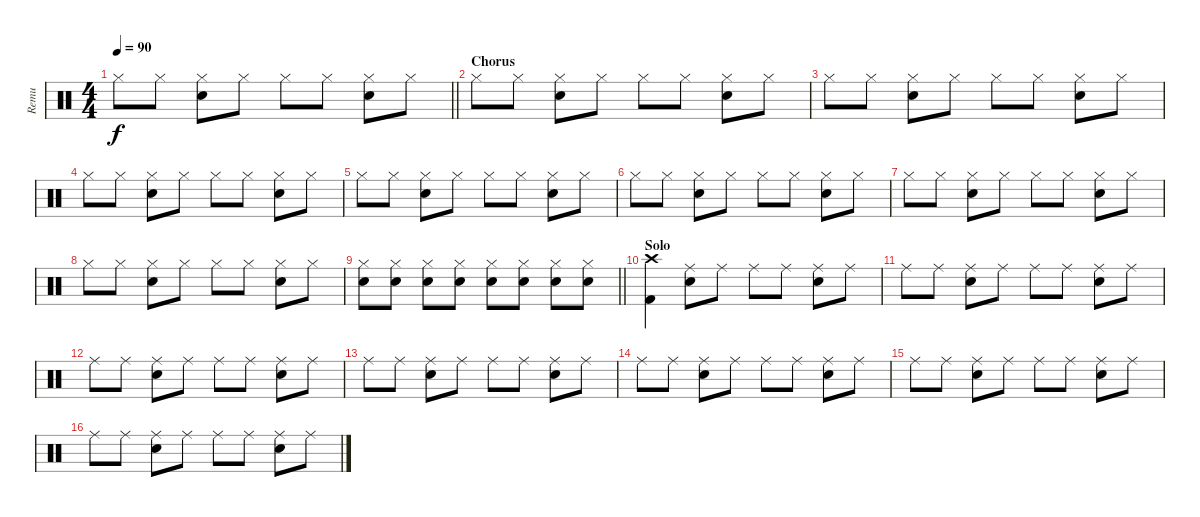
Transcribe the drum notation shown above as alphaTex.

\track ("Remu" "Remu") {instrument percussion}
\staff {score}
\articulation defaults
\ts (4 4)
\tempo 90
\clef neutral
\barLineRight lightlight
\ks c "Hi-Hat (closed)".8{dy f} "Hi-Hat (closed)".8
("Hi-Hat (closed)" "Snare (hit) 2").8 "Hi-Hat (closed)".8 "Hi-Hat (closed)".8 "Hi-Hat (closed)".8 ("Hi-Hat (closed)" "Snare (hit) 2").8 "Hi-Hat (closed)".8 |
\section ("" "Chorus")
"Hi-Hat (closed)".8 "Hi-Hat (closed)".8 ("Hi-Hat (closed)" "Snare (hit) 2").8 "Hi-Hat (closed)".8 "Hi-Hat (closed)".8 "Hi-Hat (closed)".8 ("Hi-Hat (closed)" "Snare (hit) 2").8 "Hi-Hat (closed)".8 |
"Hi-Hat (closed)".8 "Hi-Hat (closed)".8 ("Hi-Hat (closed)" "Snare (hit) 2").8 "Hi-Hat (closed)".8 "Hi-Hat (closed)".8 "Hi-Hat (closed)".8 ("Hi-Hat (closed)" "Snare (hit) 2").8 "Hi-Hat (closed)".8 |
"Hi-Hat (closed)".8 "Hi-Hat (closed)".8 ("Hi-Hat (closed)" "Snare (hit) 2").8 "Hi-Hat (closed)".8 "Hi-Hat (closed)".8 "Hi-Hat (closed)".8 ("Hi-Hat (closed)" "Snare (hit) 2").8 "Hi-Hat (closed)".8 |
"Hi-Hat (closed)".8 "Hi-Hat (closed)".8 ("Hi-Hat (closed)" "Snare (hit) 2").8 "Hi-Hat (closed)".8 "Hi-Hat (closed)".8 "Hi-Hat (closed)".8 ("Hi-Hat (closed)" "Snare (hit) 2").8 "Hi-Hat (closed)".8 |
"Hi-Hat (closed)".8 "Hi-Hat (closed)".8 ("Hi-Hat (closed)" "Snare (hit) 2").8 "Hi-Hat (closed)".8 "Hi-Hat (closed)".8 "Hi-Hat (closed)".8 ("Hi-Hat (closed)" "Snare (hit) 2").8 "Hi-Hat (closed)".8 |
"Hi-Hat (closed)".8 "Hi-Hat (closed)".8 ("Hi-Hat (closed)" "Snare (hit) 2").8 "Hi-Hat (closed)".8 "Hi-Hat (closed)".8 "Hi-Hat (closed)".8 ("Hi-Hat (closed)" "Snare (hit) 2").8 "Hi-Hat (closed)".8 |
"Hi-Hat (closed)".8 "Hi-Hat (closed)".8 ("Hi-Hat (closed)" "Snare (hit) 2").8 "Hi-Hat (closed)".8 "Hi-Hat (closed)".8 "Hi-Hat (closed)".8 ("Hi-Hat (closed)" "Snare (hit) 2").8 "Hi-Hat (closed)".8 |
\barLineRight lightlight
("Hi-Hat (closed)" "Snare (hit) 2").8 ("Hi-Hat (closed)" "Snare (hit) 2").8 ("Hi-Hat (closed)" "Snare (hit) 2").8 ("Hi-Hat (closed)" "Snare (hit) 2").8 ("Hi-Hat (closed)" "Snare (hit) 2").8 ("Hi-Hat (closed)" "Snare (hit) 2").8 ("Hi-Hat (closed)" "Snare (hit) 2").8 ("Hi-Hat (closed)" "Snare (hit) 2").8 |
\section ("" "Solo")
("Crash high (hit)" "Kick (hit) 2").4 ("Ride (middle)" "Snare (hit) 2").8 "Ride (middle)".8 "Ride (middle)".8 "Ride (middle)".8 ("Ride (middle)" "Snare (hit) 2").8 "Ride (middle)".8 |
"Ride (middle)".8 "Ride (middle)".8 ("Ride (middle)" "Snare (hit) 2").8 "Ride (middle)".8 "Ride (middle)".8 "Ride (middle)".8 ("Ride (middle)" "Snare (hit) 2").8 "Ride (middle)".8 |
"Ride (middle)".8 "Ride (middle)".8 ("Ride (middle)" "Snare (hit) 2").8 "Ride (middle)".8 "Ride (middle)".8 "Ride (middle)".8 ("Ride (middle)" "Snare (hit) 2").8 "Ride (middle)".8 |
"Ride (middle)".8 "Ride (middle)".8 ("Ride (middle)" "Snare (hit) 2").8 "Ride (middle)".8 "Ride (middle)".8 "Ride (middle)".8 ("Ride (middle)" "Snare (hit) 2").8 "Ride (middle)".8 |
"Ride (middle)".8 "Ride (middle)".8 ("Ride (middle)" "Snare (hit) 2").8 "Ride (middle)".8 "Ride (middle)".8 "Ride (middle)".8 ("Ride (middle)" "Snare (hit) 2").8 "Ride (middle)".8 |
"Ride (middle)".8 "Ride (middle)".8 ("Ride (middle)" "Snare (hit) 2").8 "Ride (middle)".8 "Ride (middle)".8 "Ride (middle)".8 ("Ride (middle)" "Snare (hit) 2").8 "Ride (middle)".8 |
"Ride (middle)".8 "Ride (middle)".8 ("Ride (middle)" "Snare (hit) 2").8 "Ride (middle)".8 "Ride (middle)".8 "Ride (middle)".8 ("Ride (middle)" "Snare (hit) 2").8 "Ride (middle)".8
